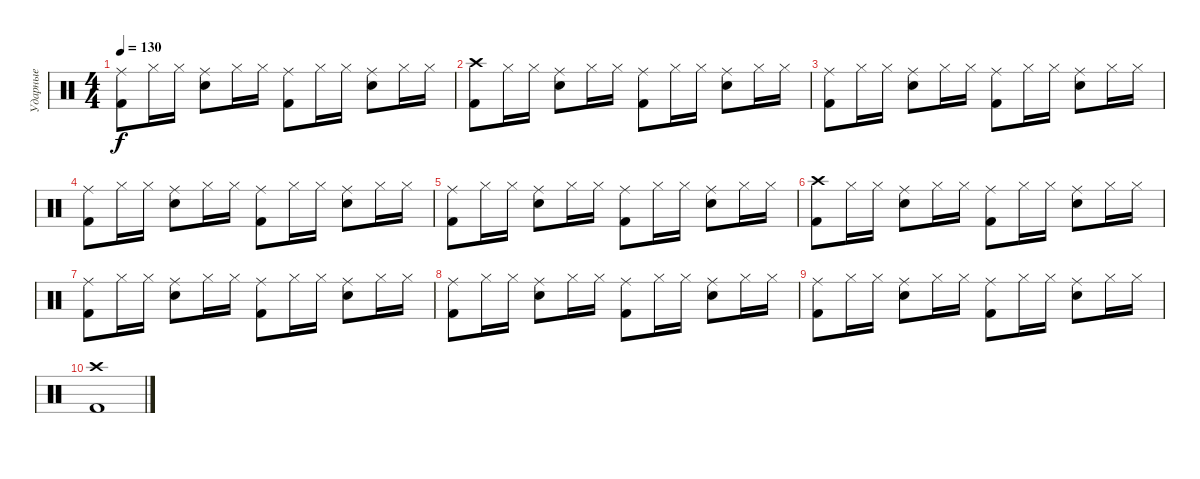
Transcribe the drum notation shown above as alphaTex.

\track ("Ударные" "Ударные") {instrument percussion}
\staff {score}
\articulation defaults
\ts (4 4)
\tempo 130
\clef neutral
\ks c
("Ride (middle)" "Kick (hit) 2").8{dy f} "Hi-Hat (closed)".16 "Hi-Hat (closed)".16 ("Ride (middle)" "Electric Snare (hit)").8 "Hi-Hat (closed)".16 "Hi-Hat (closed)".16 ("Ride (middle)" "Kick (hit) 2").8 "Hi-Hat (closed)".16 "Hi-Hat (closed)".16 ("Ride (middle)" "Electric Snare (hit)").8 "Hi-Hat (closed)".16 "Hi-Hat (closed)".16 |
("Crash high (hit)" "Kick (hit) 2").8 "Hi-Hat (closed)".16 "Hi-Hat (closed)".16 ("Ride (middle)" "Electric Snare (hit)").8 "Hi-Hat (closed)".16 "Hi-Hat (closed)".16 ("Ride (middle)" "Kick (hit) 2").8 "Hi-Hat (closed)".16 "Hi-Hat (closed)".16 ("Ride (middle)" "Electric Snare (hit)").8 "Hi-Hat (closed)".16 "Hi-Hat (closed)".16 |
("Ride (middle)" "Kick (hit) 2").8 "Hi-Hat (closed)".16 "Hi-Hat (closed)".16 ("Ride (middle)" "Electric Snare (hit)").8 "Hi-Hat (closed)".16 "Hi-Hat (closed)".16 ("Ride (middle)" "Kick (hit) 2").8 "Hi-Hat (closed)".16 "Hi-Hat (closed)".16 ("Ride (middle)" "Electric Snare (hit)").8 "Hi-Hat (closed)".16 "Hi-Hat (closed)".16 |
("Ride (middle)" "Kick (hit) 2").8 "Hi-Hat (closed)".16 "Hi-Hat (closed)".16 ("Ride (middle)" "Electric Snare (hit)").8 "Hi-Hat (closed)".16 "Hi-Hat (closed)".16 ("Ride (middle)" "Kick (hit) 2").8 "Hi-Hat (closed)".16 "Hi-Hat (closed)".16 ("Ride (middle)" "Electric Snare (hit)").8 "Hi-Hat (closed)".16 "Hi-Hat (closed)".16 |
("Ride (middle)" "Kick (hit) 2").8 "Hi-Hat (closed)".16 "Hi-Hat (closed)".16 ("Ride (middle)" "Electric Snare (hit)").8 "Hi-Hat (closed)".16 "Hi-Hat (closed)".16 ("Ride (middle)" "Kick (hit) 2").8 "Hi-Hat (closed)".16 "Hi-Hat (closed)".16 ("Ride (middle)" "Electric Snare (hit)").8 "Hi-Hat (closed)".16 "Hi-Hat (closed)".16 |
("Crash high (hit)" "Kick (hit) 2").8 "Hi-Hat (closed)".16 "Hi-Hat (closed)".16 ("Ride (middle)" "Electric Snare (hit)").8 "Hi-Hat (closed)".16 "Hi-Hat (closed)".16 ("Ride (middle)" "Kick (hit) 2").8 "Hi-Hat (closed)".16 "Hi-Hat (closed)".16 ("Ride (middle)" "Electric Snare (hit)").8 "Hi-Hat (closed)".16 "Hi-Hat (closed)".16 |
("Ride (middle)" "Kick (hit) 2").8 "Hi-Hat (closed)".16 "Hi-Hat (closed)".16 ("Ride (middle)" "Electric Snare (hit)").8 "Hi-Hat (closed)".16 "Hi-Hat (closed)".16 ("Ride (middle)" "Kick (hit) 2").8 "Hi-Hat (closed)".16 "Hi-Hat (closed)".16 ("Ride (middle)" "Electric Snare (hit)").8 "Hi-Hat (closed)".16 "Hi-Hat (closed)".16 |
("Ride (middle)" "Kick (hit) 2").8 "Hi-Hat (closed)".16 "Hi-Hat (closed)".16 ("Ride (middle)" "Electric Snare (hit)").8 "Hi-Hat (closed)".16 "Hi-Hat (closed)".16 ("Ride (middle)" "Kick (hit) 2").8 "Hi-Hat (closed)".16 "Hi-Hat (closed)".16 ("Ride (middle)" "Electric Snare (hit)").8 "Hi-Hat (closed)".16 "Hi-Hat (closed)".16 |
("Ride (middle)" "Kick (hit) 2").8 "Hi-Hat (closed)".16 "Hi-Hat (closed)".16 ("Ride (middle)" "Electric Snare (hit)").8 "Hi-Hat (closed)".16 "Hi-Hat (closed)".16 ("Ride (middle)" "Kick (hit) 2").8 "Hi-Hat (closed)".16 "Hi-Hat (closed)".16 ("Ride (middle)" "Electric Snare (hit)").8 "Hi-Hat (closed)".16 "Hi-Hat (closed)".16 |
("Crash high (hit)" "Kick (hit) 2").1
